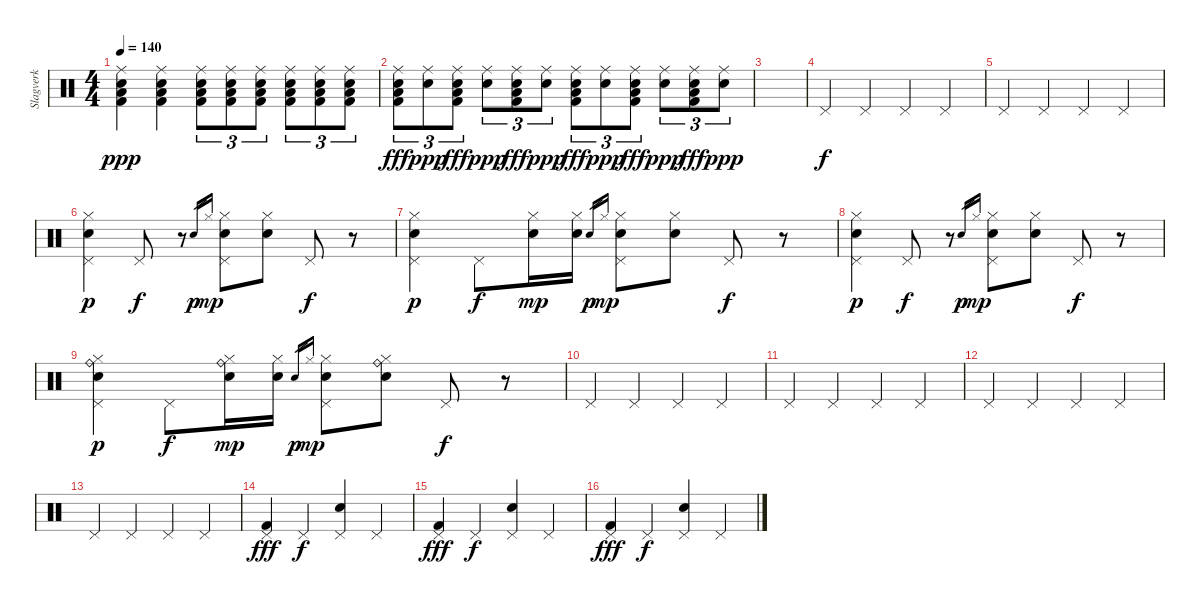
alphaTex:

\track ("Slagverk" "Slagverk") {instrument percussion}
\staff {score}
\articulation defaults
\ts (4 4)
\tempo 140
\clef neutral
\ks c
("Ride (middle)" "Low Floor Tom (hit)" "Kick (hit) 2" "Snare (hit) 2").4{dy ppp} ("Ride (middle)" "Low Floor Tom (hit)" "Kick (hit) 2" "Snare (hit) 2").4 ("Ride (middle)" "Low Floor Tom (hit)" "Kick (hit) 2" "Snare (hit) 2").8{tu (3 2)} ("Ride (middle)" "Low Floor Tom (hit)" "Kick (hit) 2" "Snare (hit) 2").8{tu (3 2)} ("Ride (middle)" "Low Floor Tom (hit)" "Kick (hit) 2" "Snare (hit) 2").8{tu (3 2)} ("Ride (middle)" "Low Floor Tom (hit)" "Kick (hit) 2" "Snare (hit) 2").8{tu (3 2)} ("Ride (middle)" "Low Floor Tom (hit)" "Kick (hit) 2" "Snare (hit) 2").8{tu (3 2)} ("Ride (middle)" "Low Floor Tom (hit)" "Kick (hit) 2" "Snare (hit) 2").8{tu (3 2)} |
("Ride (middle)" "Low Floor Tom (hit)" "Kick (hit) 2" "Snare (hit) 2").8{tu (3 2) dy fff} ("Ride (middle)" "Snare (hit) 2").8{tu (3 2) dy ppp} ("Ride (middle)" "Low Floor Tom (hit)" "Kick (hit) 2" "Snare (hit) 2").8{tu (3 2) dy fff} ("Ride (middle)" "Snare (hit) 2").8{tu (3 2) dy ppp} ("Ride (middle)" "Low Floor Tom (hit)" "Kick (hit) 2" "Snare (hit) 2").8{tu (3 2) dy fff} ("Ride (middle)" "Snare (hit) 2").8{tu (3 2) dy ppp} ("Ride (middle)" "Low Floor Tom (hit)" "Kick (hit) 2" "Snare (hit) 2").8{tu (3 2) dy fff} ("Ride (middle)" "Snare (hit) 2").8{tu (3 2) dy ppp} ("Ride (middle)" "Low Floor Tom (hit)" "Kick (hit) 2" "Snare (hit) 2").8{tu (3 2) dy fff} ("Ride (middle)" "Snare (hit) 2").8{tu (3 2) dy ppp} ("Ride (middle)" "Low Floor Tom (hit)" "Kick (hit) 2" "Snare (hit) 2").8{tu (3 2) dy fff} ("Ride (middle)" "Snare (hit) 2").8{tu (3 2) dy ppp} |
|
"Pedal Hi-Hat (hit)".4{dy f} "Pedal Hi-Hat (hit)".4 "Pedal Hi-Hat (hit)".4 "Pedal Hi-Hat (hit)".4 |
"Pedal Hi-Hat (hit)".4 "Pedal Hi-Hat (hit)".4 "Pedal Hi-Hat (hit)".4 "Pedal Hi-Hat (hit)".4 |
("Pedal Hi-Hat (hit)" "Snare (hit) 2" "Hi-Hat (closed)").4{dy p} "Pedal Hi-Hat (hit)".8{dy f} r.8 "Snare (hit) 2".16{gr dy p} "Hi-Hat (closed)".16{gr dy mp} ("Pedal Hi-Hat (hit)" "Snare (hit) 2" "Hi-Hat (closed)").8 ("Snare (hit) 2" "Hi-Hat (closed)").8 "Pedal Hi-Hat (hit)".8{dy f} r.8 |
("Pedal Hi-Hat (hit)" "Snare (hit) 2" "Hi-Hat (closed)").4{dy p} "Pedal Hi-Hat (hit)".8{dy f} ("Snare (hit) 2" "Hi-Hat (closed)").16{dy mp} ("Snare (hit) 2" "Hi-Hat (closed)").16 "Snare (hit) 2".16{gr dy p} "Hi-Hat (closed)".16{gr dy mp} ("Pedal Hi-Hat (hit)" "Snare (hit) 2" "Hi-Hat (closed)").8 ("Snare (hit) 2" "Hi-Hat (closed)").8 "Pedal Hi-Hat (hit)".8{dy f} r.8 |
("Pedal Hi-Hat (hit)" "Snare (hit) 2" "Hi-Hat (closed)").4{dy p} "Pedal Hi-Hat (hit)".8{dy f} r.8 "Snare (hit) 2".16{gr dy p} "Hi-Hat (closed)".16{gr dy mp} ("Pedal Hi-Hat (hit)" "Snare (hit) 2" "Hi-Hat (closed)").8 ("Snare (hit) 2" "Hi-Hat (closed)").8 "Pedal Hi-Hat (hit)".8{dy f} r.8 |
("Ride (bell)" "Pedal Hi-Hat (hit)" "Snare (hit) 2" "Hi-Hat (closed)").4{dy p} "Pedal Hi-Hat (hit)".8{dy f} ("Ride (bell)" "Snare (hit) 2" "Hi-Hat (closed)").16{dy mp} ("Snare (hit) 2" "Hi-Hat (closed)").16 "Snare (hit) 2".16{gr dy p} "Hi-Hat (closed)".16{gr dy mp} ("Pedal Hi-Hat (hit)" "Snare (hit) 2" "Hi-Hat (closed)").8 ("Ride (bell)" "Snare (hit) 2" "Hi-Hat (closed)").8 "Pedal Hi-Hat (hit)".8{dy f} r.8 |
"Pedal Hi-Hat (hit)".4 "Pedal Hi-Hat (hit)".4 "Pedal Hi-Hat (hit)".4 "Pedal Hi-Hat (hit)".4 |
"Pedal Hi-Hat (hit)".4 "Pedal Hi-Hat (hit)".4 "Pedal Hi-Hat (hit)".4 "Pedal Hi-Hat (hit)".4 |
"Pedal Hi-Hat (hit)".4 "Pedal Hi-Hat (hit)".4 "Pedal Hi-Hat (hit)".4 "Pedal Hi-Hat (hit)".4 |
"Pedal Hi-Hat (hit)".4 "Pedal Hi-Hat (hit)".4 "Pedal Hi-Hat (hit)".4 "Pedal Hi-Hat (hit)".4 |
("Pedal Hi-Hat (hit)" "Kick (hit) 2").4{dy fff} "Pedal Hi-Hat (hit)".4{dy f} ("Pedal Hi-Hat (hit)" "Snare (hit) 2").4 "Pedal Hi-Hat (hit)".4 |
("Pedal Hi-Hat (hit)" "Kick (hit) 2").4{dy fff} "Pedal Hi-Hat (hit)".4{dy f} ("Pedal Hi-Hat (hit)" "Snare (hit) 2").4 "Pedal Hi-Hat (hit)".4 |
("Pedal Hi-Hat (hit)" "Kick (hit) 2").4{dy fff} "Pedal Hi-Hat (hit)".4{dy f} ("Pedal Hi-Hat (hit)" "Snare (hit) 2").4 "Pedal Hi-Hat (hit)".4
